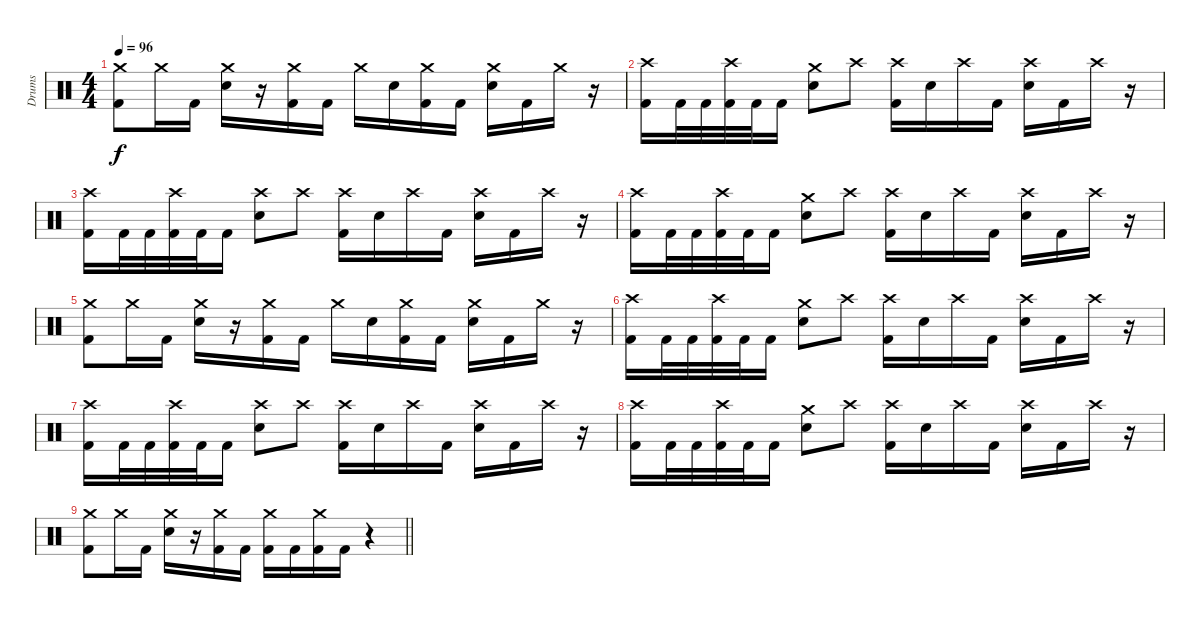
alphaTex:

\track ("Drums" "Drums") {instrument percussion}
\staff {score}
\articulation defaults
\ts (4 4)
\tempo 96
\clef neutral
\ks c
("Crash medium (hit)" "Kick (hit) 2").8{dy f} "Crash medium (hit)".16 "Kick (hit) 2".16 ("Crash medium (hit)" "Electric Snare (hit)").16 r.16 ("Crash medium (hit)" "Kick (hit) 2").16 "Kick (hit) 2".16 "Crash medium (hit)".16 "Electric Snare (hit)".16 ("Crash medium (hit)" "Kick (hit) 2").16 "Kick (hit) 2".16 ("Crash medium (hit)" "Electric Snare (hit)").16 "Kick (hit) 2".16 "Crash medium (hit)".16 r.16 |
("Crash high (hit)" "Kick (hit) 2").16 "Kick (hit) 2".32 "Kick (hit) 2".32 ("Crash high (hit)" "Kick (hit) 2").32 "Kick (hit) 2".32 "Kick (hit) 2".16 ("Crash medium (hit)" "Electric Snare (hit)").8 "Crash high (hit)".8 ("Crash high (hit)" "Kick (hit) 2").16 "Electric Snare (hit)".16 "Crash high (hit)".16 "Kick (hit) 2".16 ("Crash high (hit)" "Electric Snare (hit)").16 "Kick (hit) 2".16 "Crash high (hit)".16 r.16 |
("Crash high (hit)" "Kick (hit) 2").16 "Kick (hit) 2".32 "Kick (hit) 2".32 ("Crash high (hit)" "Kick (hit) 2").32 "Kick (hit) 2".32 "Kick (hit) 2".16 ("Crash high (hit)" "Electric Snare (hit)").8 "Crash high (hit)".8 ("Crash high (hit)" "Kick (hit) 2").16 "Electric Snare (hit)".16 "Crash high (hit)".16 "Kick (hit) 2".16 ("Crash high (hit)" "Electric Snare (hit)").16 "Kick (hit) 2".16 "Crash high (hit)".16 r.16 |
("Crash high (hit)" "Kick (hit) 2").16 "Kick (hit) 2".32 "Kick (hit) 2".32 ("Crash high (hit)" "Kick (hit) 2").32 "Kick (hit) 2".32 "Kick (hit) 2".16 ("Crash medium (hit)" "Electric Snare (hit)").8 "Crash high (hit)".8 ("Crash high (hit)" "Kick (hit) 2").16 "Electric Snare (hit)".16 "Crash high (hit)".16 "Kick (hit) 2".16 ("Crash high (hit)" "Electric Snare (hit)").16 "Kick (hit) 2".16 "Crash high (hit)".16 r.16 |
("Crash medium (hit)" "Kick (hit) 2").8 "Crash medium (hit)".16 "Kick (hit) 2".16 ("Crash medium (hit)" "Electric Snare (hit)").16 r.16 ("Crash medium (hit)" "Kick (hit) 2").16 "Kick (hit) 2".16 "Crash medium (hit)".16 "Electric Snare (hit)".16 ("Crash medium (hit)" "Kick (hit) 2").16 "Kick (hit) 2".16 ("Crash medium (hit)" "Electric Snare (hit)").16 "Kick (hit) 2".16 "Crash medium (hit)".16 r.16 |
("Crash high (hit)" "Kick (hit) 2").16 "Kick (hit) 2".32 "Kick (hit) 2".32 ("Crash high (hit)" "Kick (hit) 2").32 "Kick (hit) 2".32 "Kick (hit) 2".16 ("Crash medium (hit)" "Electric Snare (hit)").8 "Crash high (hit)".8 ("Crash high (hit)" "Kick (hit) 2").16 "Electric Snare (hit)".16 "Crash high (hit)".16 "Kick (hit) 2".16 ("Crash high (hit)" "Electric Snare (hit)").16 "Kick (hit) 2".16 "Crash high (hit)".16 r.16 |
("Crash high (hit)" "Kick (hit) 2").16 "Kick (hit) 2".32 "Kick (hit) 2".32 ("Crash high (hit)" "Kick (hit) 2").32 "Kick (hit) 2".32 "Kick (hit) 2".16 ("Crash high (hit)" "Electric Snare (hit)").8 "Crash high (hit)".8 ("Crash high (hit)" "Kick (hit) 2").16 "Electric Snare (hit)".16 "Crash high (hit)".16 "Kick (hit) 2".16 ("Crash high (hit)" "Electric Snare (hit)").16 "Kick (hit) 2".16 "Crash high (hit)".16 r.16 |
("Crash high (hit)" "Kick (hit) 2").16 "Kick (hit) 2".32 "Kick (hit) 2".32 ("Crash high (hit)" "Kick (hit) 2").32 "Kick (hit) 2".32 "Kick (hit) 2".16 ("Crash medium (hit)" "Electric Snare (hit)").8 "Crash high (hit)".8 ("Crash high (hit)" "Kick (hit) 2").16 "Electric Snare (hit)".16 "Crash high (hit)".16 "Kick (hit) 2".16 ("Crash high (hit)" "Electric Snare (hit)").16 "Kick (hit) 2".16 "Crash high (hit)".16 r.16 |
\barLineRight lightlight
("Crash medium (hit)" "Kick (hit) 2").8 "Crash medium (hit)".16 "Kick (hit) 2".16 ("Crash medium (hit)" "Electric Snare (hit)").16 r.16 ("Crash medium (hit)" "Kick (hit) 2").16 "Kick (hit) 2".16 ("Crash medium (hit)" "Kick (hit) 2").16 "Kick (hit) 2".16 ("Crash medium (hit)" "Kick (hit) 2").16 "Kick (hit) 2".16 r.4
